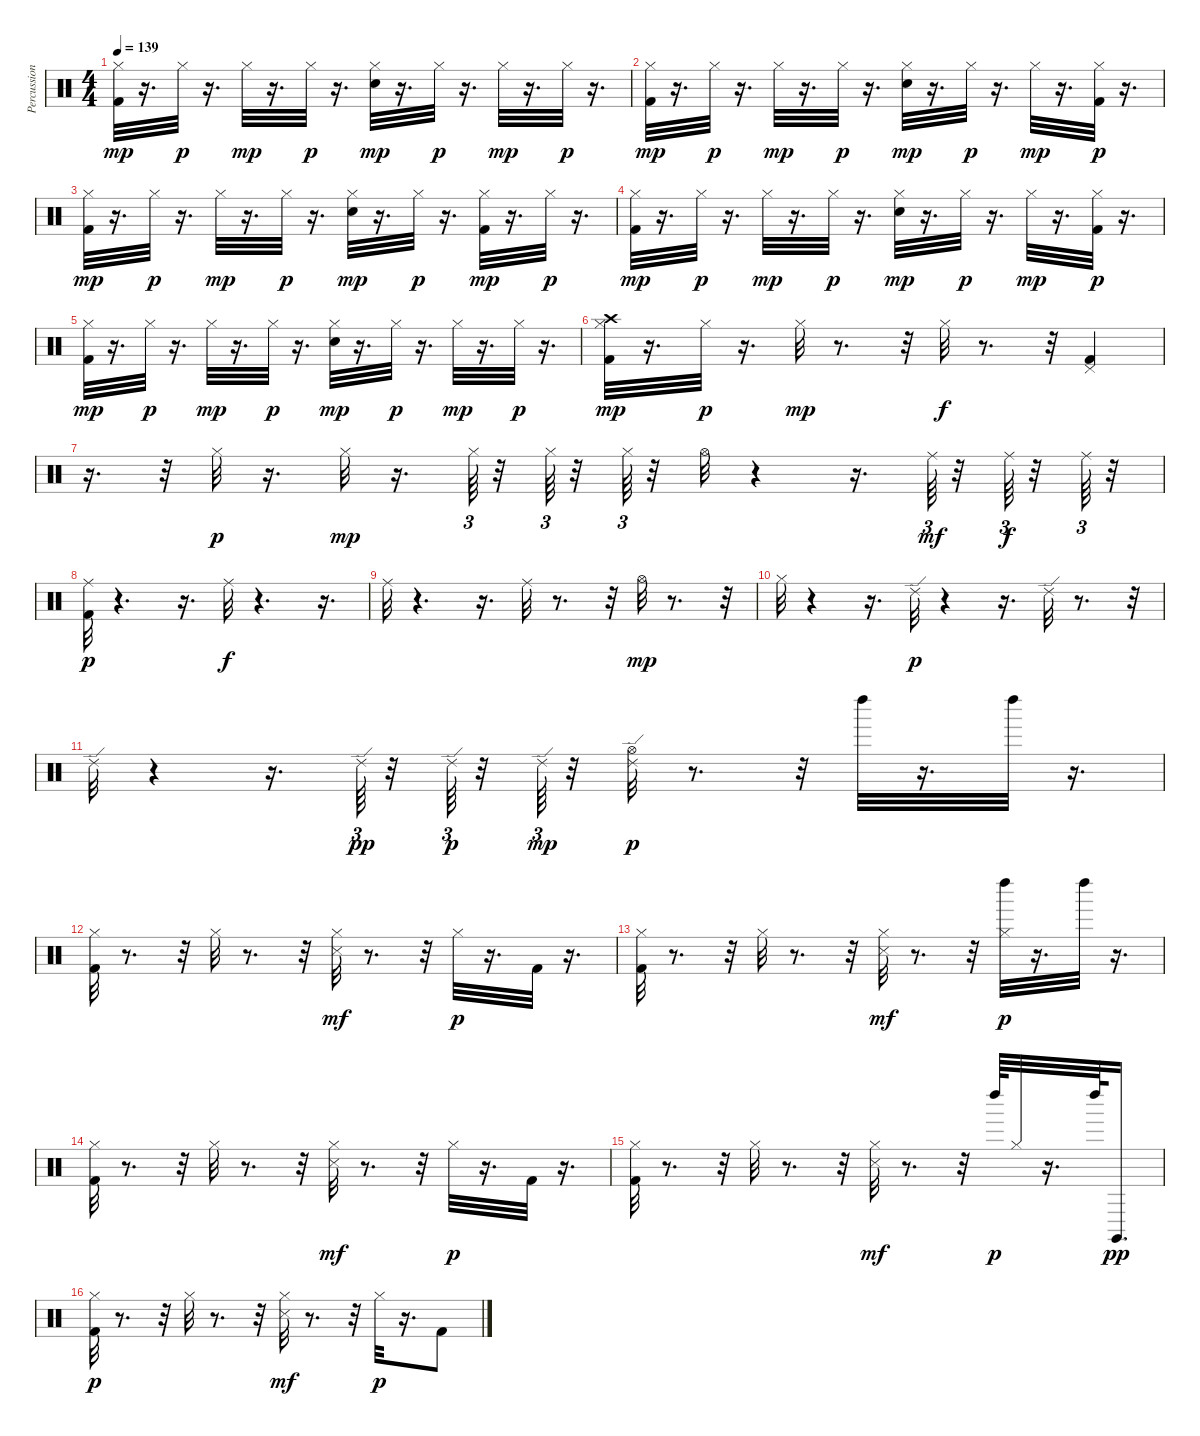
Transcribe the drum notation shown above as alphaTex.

\track ("Percussion" "Percussion") {instrument percussion}
\staff {score}
\articulation defaults
\ts (4 4)
\tempo 139
\clef neutral
\ks c
("Hi-Hat (closed)" "Kick (hit) 2").32{dy mp} r.16{d} "Hi-Hat (closed)".32{dy p} r.16{d} "Hi-Hat (closed)".32{dy mp} r.16{d} "Hi-Hat (closed)".32{dy p} r.16{d} ("Hi-Hat (closed)" "Snare (hit) 2").32{dy mp} r.16{d} "Hi-Hat (closed)".32{dy p} r.16{d} "Hi-Hat (closed)".32{dy mp} r.16{d} "Hi-Hat (closed)".32{dy p} r.16{d} |
("Hi-Hat (closed)" "Kick (hit) 2").32{dy mp} r.16{d} "Hi-Hat (closed)".32{dy p} r.16{d} "Hi-Hat (closed)".32{dy mp} r.16{d} "Hi-Hat (closed)".32{dy p} r.16{d} ("Hi-Hat (closed)" "Snare (hit) 2").32{dy mp} r.16{d} "Hi-Hat (closed)".32{dy p} r.16{d} "Hi-Hat (closed)".32{dy mp} r.16{d} ("Hi-Hat (closed)" "Kick (hit) 2").32{dy p} r.16{d} |
("Hi-Hat (closed)" "Kick (hit) 2").32{dy mp} r.16{d} "Hi-Hat (closed)".32{dy p} r.16{d} "Hi-Hat (closed)".32{dy mp} r.16{d} "Hi-Hat (closed)".32{dy p} r.16{d} ("Hi-Hat (closed)" "Snare (hit) 2").32{dy mp} r.16{d} "Hi-Hat (closed)".32{dy p} r.16{d} ("Hi-Hat (closed)" "Kick (hit) 2").32{dy mp} r.16{d} "Hi-Hat (closed)".32{dy p} r.16{d} |
("Hi-Hat (closed)" "Kick (hit) 2").32{dy mp} r.16{d} "Hi-Hat (closed)".32{dy p} r.16{d} "Hi-Hat (closed)".32{dy mp} r.16{d} "Hi-Hat (closed)".32{dy p} r.16{d} ("Hi-Hat (closed)" "Snare (hit) 2").32{dy mp} r.16{d} "Hi-Hat (closed)".32{dy p} r.16{d} "Hi-Hat (closed)".32{dy mp} r.16{d} ("Hi-Hat (closed)" "Kick (hit) 2").32{dy p} r.16{d} |
("Hi-Hat (closed)" "Kick (hit) 2").32{dy mp} r.16{d} "Hi-Hat (closed)".32{dy p} r.16{d} "Hi-Hat (closed)".32{dy mp} r.16{d} "Hi-Hat (closed)".32{dy p} r.16{d} ("Hi-Hat (closed)" "Snare (hit) 2").32{dy mp} r.16{d} "Hi-Hat (closed)".32{dy p} r.16{d} "Hi-Hat (closed)".32{dy mp} r.16{d} "Hi-Hat (closed)".32{dy p} r.16{d} |
("Crash high (hit)" "Hi-Hat (closed)" "Kick (hit) 2").32{dy mp} r.16{d} "Hi-Hat (closed)".32{dy p} r.16{d} "Hi-Hat (closed)".32{dy mp} r.8{d} r.32 "Hi-Hat (closed)".32{dy f} r.8{d} r.32 ("Pedal Hi-Hat (hit)" "Kick (hit) 2").4 |
r.16{d} r.32 "Hi-Hat (closed)".32{dy p} r.16{d} "Hi-Hat (closed)".32{dy mp} r.16{d} "Hi-Hat (closed)".64{tu (3 2)} r.32 "Hi-Hat (closed)".64{tu (3 2)} r.32 "Hi-Hat (closed)".64{tu (3 2)} r.32 "Hi-Hat (open)".32 r.4 r.16{d} "Ride (middle)".64{tu (3 2) dy mf} r.32 "Ride (middle)".64{tu (3 2) dy f} r.32 "Ride (middle)".64{tu (3 2)} r.32 |
("Ride (middle)" "Kick (hit) 2").32{dy p} r.4{d} r.16{d} "Ride (middle)".32{dy f} r.4{d} r.16{d} |
"Ride (middle)".32 r.4{d} r.16{d} "Ride (middle)".32 r.8{d} r.32 "Hi-Hat (open)".32{dy mp} r.8{d} r.32 |
"Hi-Hat (closed)".32 r.4 r.16{d} "Ride (edge) 2".32{dy p} r.4 r.16{d} "Ride (edge) 2".32 r.8{d} r.32 |
"Ride (edge) 2".32 r.4 r.16{d} "Ride (edge) 2".64{tu (3 2) dy pp} r.32 "Ride (edge) 2".64{tu (3 2) dy p} r.32 "Ride (edge) 2".64{tu (3 2) dy mp} r.32 ("Ride (edge) 2" "Hi-Hat (open)").32{dy p} r.8{d} r.32 "Left Maraca (hit)".32 r.16{d} "Left Maraca (hit)".32 r.16{d} |
("Hi-Hat (closed)" "Kick (hit) 2").32 r.8{d} r.32 "Hi-Hat (closed)".32 r.8{d} r.32 ("Hi-Hat (closed)" "Snare (side stick) 3").32{dy mf} r.8{d} r.32 "Hi-Hat (closed)".32{dy p} r.16{d} "Kick (hit) 2".32 r.16{d} |
("Hi-Hat (closed)" "Kick (hit) 2").32 r.8{d} r.32 "Hi-Hat (closed)".32 r.8{d} r.32 ("Hi-Hat (closed)" "Snare (side stick) 3").32{dy mf} r.8{d} r.32 ("Left Maraca (hit)" "Hi-Hat (closed)").32{dy p} r.16{d} "Left Maraca (hit)".32 r.16{d} |
("Hi-Hat (closed)" "Kick (hit) 2").32 r.8{d} r.32 "Hi-Hat (closed)".32 r.8{d} r.32 ("Hi-Hat (closed)" "Snare (side stick) 3").32{dy mf} r.8{d} r.32 "Hi-Hat (closed)".32{dy p} r.16{d} "Kick (hit) 2".32 r.16{d} |
("Hi-Hat (closed)" "Kick (hit) 2").32 r.8{d} r.32 "Hi-Hat (closed)".32 r.8{d} r.32 ("Hi-Hat (closed)" "Snare (side stick) 3").32{dy mf} r.8{d} r.32 "Left Maraca (hit)".64{dy p} "Hi-Hat (closed)".32 r.16{d} "Left Maraca (hit)".64 "Claves (hit)".16{d dy pp} |
("Hi-Hat (closed)" "Kick (hit) 2").32{dy p} r.8{d} r.32 "Hi-Hat (closed)".32 r.8{d} r.32 ("Hi-Hat (closed)" "Snare (side stick) 3").32{dy mf} r.8{d} r.32 "Hi-Hat (closed)".32{dy p} r.16{d} "Kick (hit) 2".8
